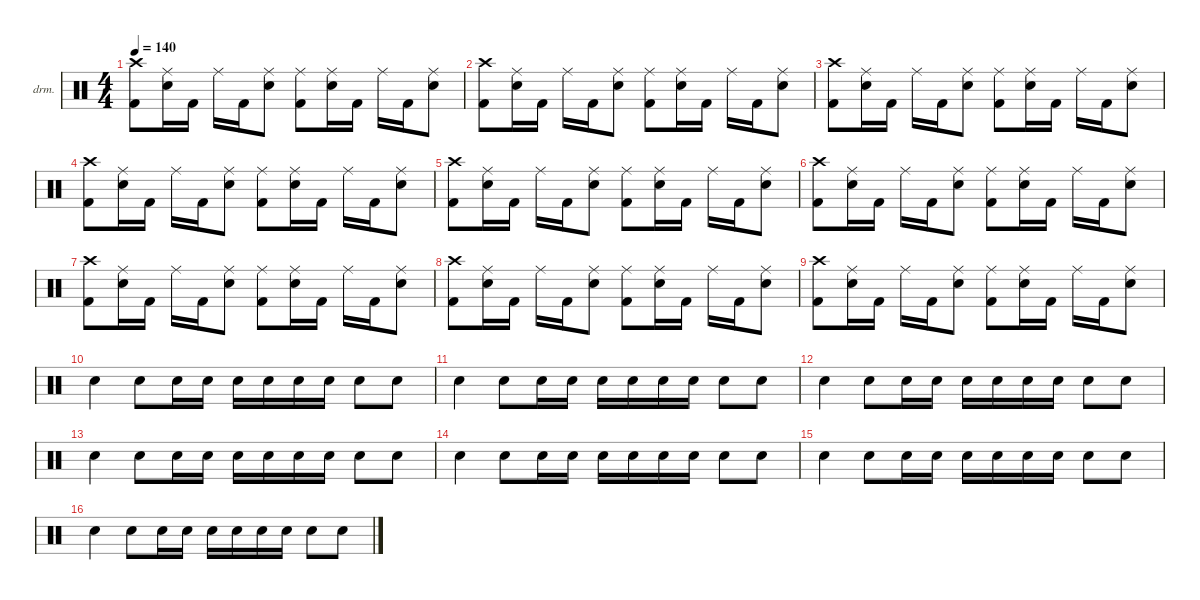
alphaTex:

\defaultSystemsLayout 4
\hideDynamics
\bracketExtendMode nobrackets
\firstSystemTrackNameOrientation horizontal
\otherSystemsTrackNameOrientation horizontal
\track ("Drumkit" "drm.") {instrument percussion}
\staff {score}
\articulation defaults
\ts (4 4)
\tempo 140
\clef neutral
\ks c
("Crash high (hit)" "Kick (hit) 2").8{dy f} ("Ride (middle)" "Snare (hit) 2").16 "Kick (hit) 2".16 "Ride (middle)".16 "Kick (hit) 2".16 ("Ride (middle)" "Snare (hit) 2").8 ("Ride (middle)" "Kick (hit) 2").8 ("Ride (middle)" "Snare (hit) 2").16 "Kick (hit) 2".16 "Ride (middle)".16 "Kick (hit) 2".16 ("Ride (middle)" "Snare (hit) 2").8 |
("Crash high (hit)" "Kick (hit) 2").8 ("Ride (middle)" "Snare (hit) 2").16 "Kick (hit) 2".16 "Ride (middle)".16 "Kick (hit) 2".16 ("Ride (middle)" "Snare (hit) 2").8 ("Ride (middle)" "Kick (hit) 2").8 ("Ride (middle)" "Snare (hit) 2").16 "Kick (hit) 2".16 "Ride (middle)".16 "Kick (hit) 2".16 ("Ride (middle)" "Snare (hit) 2").8 |
("Crash high (hit)" "Kick (hit) 2").8 ("Ride (middle)" "Snare (hit) 2").16 "Kick (hit) 2".16 "Ride (middle)".16 "Kick (hit) 2".16 ("Ride (middle)" "Snare (hit) 2").8 ("Ride (middle)" "Kick (hit) 2").8 ("Ride (middle)" "Snare (hit) 2").16 "Kick (hit) 2".16 "Ride (middle)".16 "Kick (hit) 2".16 ("Ride (middle)" "Snare (hit) 2").8 |
("Crash high (hit)" "Kick (hit) 2").8 ("Ride (middle)" "Snare (hit) 2").16 "Kick (hit) 2".16 "Ride (middle)".16 "Kick (hit) 2".16 ("Ride (middle)" "Snare (hit) 2").8 ("Ride (middle)" "Kick (hit) 2").8 ("Ride (middle)" "Snare (hit) 2").16 "Kick (hit) 2".16 "Ride (middle)".16 "Kick (hit) 2".16 ("Ride (middle)" "Snare (hit) 2").8 |
("Crash high (hit)" "Kick (hit) 2").8 ("Ride (middle)" "Snare (hit) 2").16 "Kick (hit) 2".16 "Ride (middle)".16 "Kick (hit) 2".16 ("Ride (middle)" "Snare (hit) 2").8 ("Ride (middle)" "Kick (hit) 2").8 ("Ride (middle)" "Snare (hit) 2").16 "Kick (hit) 2".16 "Ride (middle)".16 "Kick (hit) 2".16 ("Ride (middle)" "Snare (hit) 2").8 |
("Crash high (hit)" "Kick (hit) 2").8 ("Ride (middle)" "Snare (hit) 2").16 "Kick (hit) 2".16 "Ride (middle)".16 "Kick (hit) 2".16 ("Ride (middle)" "Snare (hit) 2").8 ("Ride (middle)" "Kick (hit) 2").8 ("Ride (middle)" "Snare (hit) 2").16 "Kick (hit) 2".16 "Ride (middle)".16 "Kick (hit) 2".16 ("Ride (middle)" "Snare (hit) 2").8 |
("Crash high (hit)" "Kick (hit) 2").8 ("Ride (middle)" "Snare (hit) 2").16 "Kick (hit) 2".16 "Ride (middle)".16 "Kick (hit) 2".16 ("Ride (middle)" "Snare (hit) 2").8 ("Ride (middle)" "Kick (hit) 2").8 ("Ride (middle)" "Snare (hit) 2").16 "Kick (hit) 2".16 "Ride (middle)".16 "Kick (hit) 2".16 ("Ride (middle)" "Snare (hit) 2").8 |
("Crash high (hit)" "Kick (hit) 2").8 ("Ride (middle)" "Snare (hit) 2").16 "Kick (hit) 2".16 "Ride (middle)".16 "Kick (hit) 2".16 ("Ride (middle)" "Snare (hit) 2").8 ("Ride (middle)" "Kick (hit) 2").8 ("Ride (middle)" "Snare (hit) 2").16 "Kick (hit) 2".16 "Ride (middle)".16 "Kick (hit) 2".16 ("Ride (middle)" "Snare (hit) 2").8 |
("Crash high (hit)" "Kick (hit) 2").8 ("Ride (middle)" "Snare (hit) 2").16 "Kick (hit) 2".16 "Ride (middle)".16 "Kick (hit) 2".16 ("Ride (middle)" "Snare (hit) 2").8 ("Ride (middle)" "Kick (hit) 2").8 ("Ride (middle)" "Snare (hit) 2").16 "Kick (hit) 2".16 "Ride (middle)".16 "Kick (hit) 2".16 ("Ride (middle)" "Snare (hit) 2").8 |
"Snare (hit) 2".4{dy mf} "Snare (hit) 2".8 "Snare (hit) 2".16 "Snare (hit) 2".16 "Snare (hit) 2".16 "Snare (hit) 2".16 "Snare (hit) 2".16 "Snare (hit) 2".16 "Snare (hit) 2".8 "Snare (hit) 2".8 |
"Snare (hit) 2".4 "Snare (hit) 2".8 "Snare (hit) 2".16 "Snare (hit) 2".16 "Snare (hit) 2".16 "Snare (hit) 2".16 "Snare (hit) 2".16 "Snare (hit) 2".16 "Snare (hit) 2".8 "Snare (hit) 2".8 |
"Snare (hit) 2".4 "Snare (hit) 2".8 "Snare (hit) 2".16 "Snare (hit) 2".16 "Snare (hit) 2".16 "Snare (hit) 2".16 "Snare (hit) 2".16 "Snare (hit) 2".16 "Snare (hit) 2".8 "Snare (hit) 2".8 |
"Snare (hit) 2".4 "Snare (hit) 2".8 "Snare (hit) 2".16 "Snare (hit) 2".16 "Snare (hit) 2".16 "Snare (hit) 2".16 "Snare (hit) 2".16 "Snare (hit) 2".16 "Snare (hit) 2".8 "Snare (hit) 2".8 |
"Snare (hit) 2".4 "Snare (hit) 2".8 "Snare (hit) 2".16 "Snare (hit) 2".16 "Snare (hit) 2".16 "Snare (hit) 2".16 "Snare (hit) 2".16 "Snare (hit) 2".16 "Snare (hit) 2".8 "Snare (hit) 2".8 |
"Snare (hit) 2".4 "Snare (hit) 2".8 "Snare (hit) 2".16 "Snare (hit) 2".16 "Snare (hit) 2".16 "Snare (hit) 2".16 "Snare (hit) 2".16 "Snare (hit) 2".16 "Snare (hit) 2".8 "Snare (hit) 2".8 |
"Snare (hit) 2".4 "Snare (hit) 2".8 "Snare (hit) 2".16 "Snare (hit) 2".16 "Snare (hit) 2".16 "Snare (hit) 2".16 "Snare (hit) 2".16 "Snare (hit) 2".16 "Snare (hit) 2".8 "Snare (hit) 2".8
